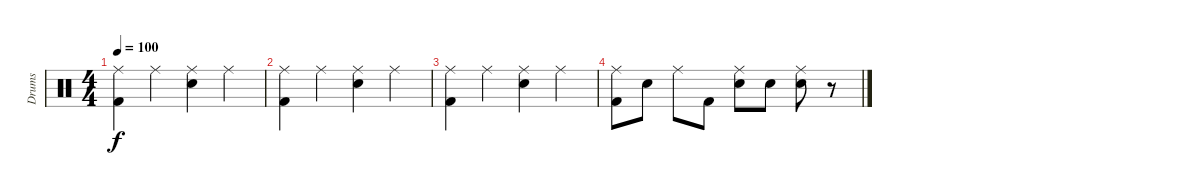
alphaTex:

\track ("Drums" "Drums") {instrument percussion}
\staff {score}
\articulation defaults
\ts (4 4)
\tempo 100
\clef neutral
\ks c
("Ride (middle)" "Kick (hit) 2").4{dy f} "Ride (middle)".4 ("Ride (middle)" "Snare (hit) 2").4 "Ride (middle)".4 |
("Ride (middle)" "Kick (hit) 2").4 "Ride (middle)".4 ("Ride (middle)" "Snare (hit) 2").4 "Ride (middle)".4 |
("Ride (middle)" "Kick (hit) 2").4 "Ride (middle)".4 ("Ride (middle)" "Snare (hit) 2").4 "Ride (middle)".4 |
("Ride (middle)" "Kick (hit) 2").8 "Snare (hit) 2".8 "Ride (middle)".8 "Kick (hit) 2".8 ("Snare (hit) 2" "Ride (middle)").8 "Snare (hit) 2".8 ("Snare (hit) 2" "Ride (middle)").8 r.8
